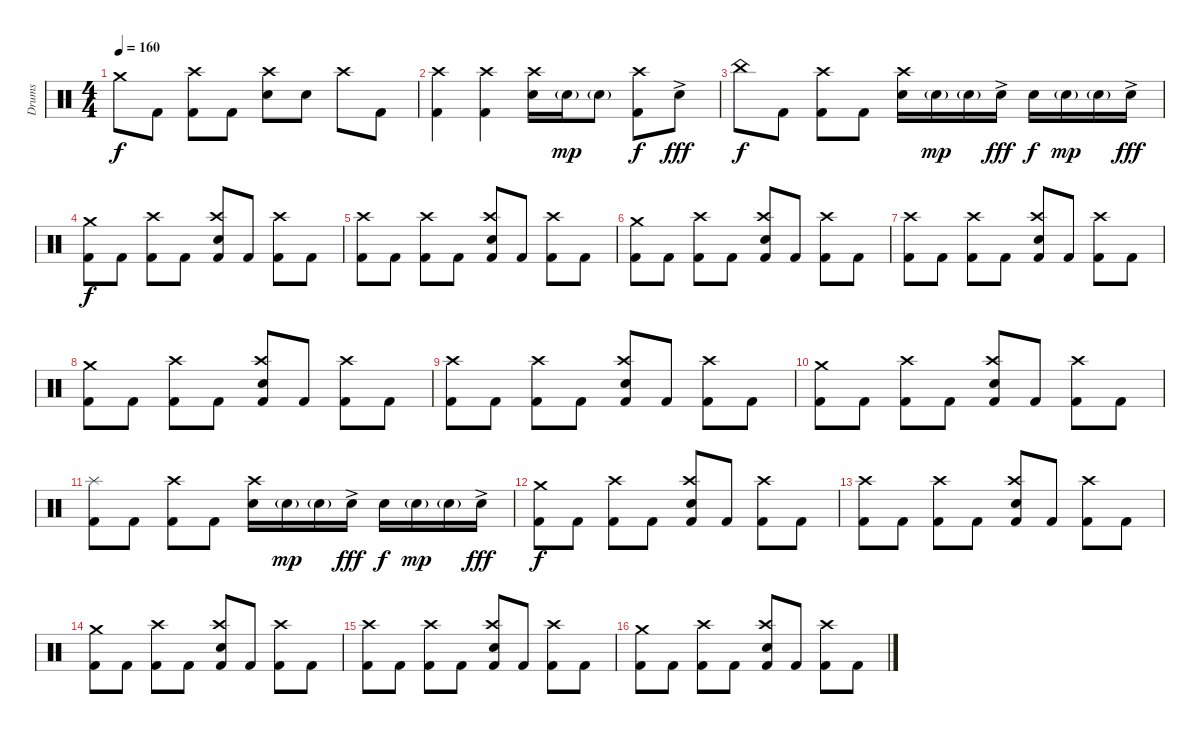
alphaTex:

\track ("Drums" "Drums") {instrument percussion}
\staff {score}
\articulation defaults
\ts (4 4)
\tempo 160
\clef neutral
\ks c "Crash medium (hit)".8{dy f} "Kick (hit) 2".8
("Crash high (hit)" "Kick (hit) 2").8 "Kick (hit) 2".8 ("Crash high (hit)" "Snare (hit) 2").8 "Snare (hit) 2".8 "Crash high (hit)".8 "Kick (hit) 2".8 |
("Crash high (hit)" "Kick (hit) 2").4 ("Crash high (hit)" "Kick (hit) 2").4 ("Crash high (hit)" "Snare (hit) 2").16 "Snare (hit) 2"{g}.16{dy mp} "Snare (hit) 2"{g}.8 ("Crash high (hit)" "Kick (hit) 2").8{dy f} "Snare (hit) 2"{ac}.8{dy fff} |
"China (hit)".8{dy f} "Kick (hit) 2".8 ("Crash high (hit)" "Kick (hit) 2").8 "Kick (hit) 2".8 ("Crash high (hit)" "Snare (hit) 2").16 "Snare (hit) 2"{g}.16{dy mp} "Snare (hit) 2"{g}.16 "Snare (hit) 2"{ac}.16{dy fff} "Snare (hit) 2".16{dy f} "Snare (hit) 2"{g}.16{dy mp} "Snare (hit) 2"{g}.16 "Snare (hit) 2"{ac}.16{dy fff} |
("Crash medium (hit)" "Kick (hit) 2").8{dy f} "Kick (hit) 2".8 ("Crash high (hit)" "Kick (hit) 2").8 "Kick (hit) 2".8 ("Crash high (hit)" "Snare (hit) 2" "Kick (hit) 2").8 "Kick (hit) 2".8 ("Crash high (hit)" "Kick (hit) 2").8 "Kick (hit) 2".8 |
("Crash high (hit)" "Kick (hit) 2").8 "Kick (hit) 2".8 ("Crash high (hit)" "Kick (hit) 2").8 "Kick (hit) 2".8 ("Crash high (hit)" "Snare (hit) 2" "Kick (hit) 2").8 "Kick (hit) 2".8 ("Crash high (hit)" "Kick (hit) 2").8 "Kick (hit) 2".8 |
("Crash medium (hit)" "Kick (hit) 2").8 "Kick (hit) 2".8 ("Crash high (hit)" "Kick (hit) 2").8 "Kick (hit) 2".8 ("Crash high (hit)" "Snare (hit) 2" "Kick (hit) 2").8 "Kick (hit) 2".8 ("Crash high (hit)" "Kick (hit) 2").8 "Kick (hit) 2".8 |
("Crash high (hit)" "Kick (hit) 2").8 "Kick (hit) 2".8 ("Crash high (hit)" "Kick (hit) 2").8 "Kick (hit) 2".8 ("Crash high (hit)" "Snare (hit) 2" "Kick (hit) 2").8 "Kick (hit) 2".8 ("Crash high (hit)" "Kick (hit) 2").8 "Kick (hit) 2".8 |
("Crash medium (hit)" "Kick (hit) 2").8 "Kick (hit) 2".8 ("Crash high (hit)" "Kick (hit) 2").8 "Kick (hit) 2".8 ("Crash high (hit)" "Snare (hit) 2" "Kick (hit) 2").8 "Kick (hit) 2".8 ("Crash high (hit)" "Kick (hit) 2").8 "Kick (hit) 2".8 |
("Crash high (hit)" "Kick (hit) 2").8 "Kick (hit) 2".8 ("Crash high (hit)" "Kick (hit) 2").8 "Kick (hit) 2".8 ("Crash high (hit)" "Snare (hit) 2" "Kick (hit) 2").8 "Kick (hit) 2".8 ("Crash high (hit)" "Kick (hit) 2").8 "Kick (hit) 2".8 |
("Crash medium (hit)" "Kick (hit) 2").8 "Kick (hit) 2".8 ("Crash high (hit)" "Kick (hit) 2").8 "Kick (hit) 2".8 ("Crash high (hit)" "Snare (hit) 2" "Kick (hit) 2").8 "Kick (hit) 2".8 ("Crash high (hit)" "Kick (hit) 2").8 "Kick (hit) 2".8 |
("Splash (hit)" "Kick (hit) 2").8 "Kick (hit) 2".8 ("Crash high (hit)" "Kick (hit) 2").8 "Kick (hit) 2".8 ("Crash high (hit)" "Snare (hit) 2").16 "Snare (hit) 2"{g}.16{dy mp} "Snare (hit) 2"{g}.16 "Snare (hit) 2"{ac}.16{dy fff} "Snare (hit) 2".16{dy f} "Snare (hit) 2"{g}.16{dy mp} "Snare (hit) 2"{g}.16 "Snare (hit) 2"{ac}.16{dy fff} |
("Crash medium (hit)" "Kick (hit) 2").8{dy f} "Kick (hit) 2".8 ("Crash high (hit)" "Kick (hit) 2").8 "Kick (hit) 2".8 ("Crash high (hit)" "Snare (hit) 2" "Kick (hit) 2").8 "Kick (hit) 2".8 ("Crash high (hit)" "Kick (hit) 2").8 "Kick (hit) 2".8 |
("Crash high (hit)" "Kick (hit) 2").8 "Kick (hit) 2".8 ("Crash high (hit)" "Kick (hit) 2").8 "Kick (hit) 2".8 ("Crash high (hit)" "Snare (hit) 2" "Kick (hit) 2").8 "Kick (hit) 2".8 ("Crash high (hit)" "Kick (hit) 2").8 "Kick (hit) 2".8 |
("Crash medium (hit)" "Kick (hit) 2").8 "Kick (hit) 2".8 ("Crash high (hit)" "Kick (hit) 2").8 "Kick (hit) 2".8 ("Crash high (hit)" "Snare (hit) 2" "Kick (hit) 2").8 "Kick (hit) 2".8 ("Crash high (hit)" "Kick (hit) 2").8 "Kick (hit) 2".8 |
("Crash high (hit)" "Kick (hit) 2").8 "Kick (hit) 2".8 ("Crash high (hit)" "Kick (hit) 2").8 "Kick (hit) 2".8 ("Crash high (hit)" "Snare (hit) 2" "Kick (hit) 2").8 "Kick (hit) 2".8 ("Crash high (hit)" "Kick (hit) 2").8 "Kick (hit) 2".8 |
("Crash medium (hit)" "Kick (hit) 2").8 "Kick (hit) 2".8 ("Crash high (hit)" "Kick (hit) 2").8 "Kick (hit) 2".8 ("Crash high (hit)" "Snare (hit) 2" "Kick (hit) 2").8 "Kick (hit) 2".8 ("Crash high (hit)" "Kick (hit) 2").8 "Kick (hit) 2".8
